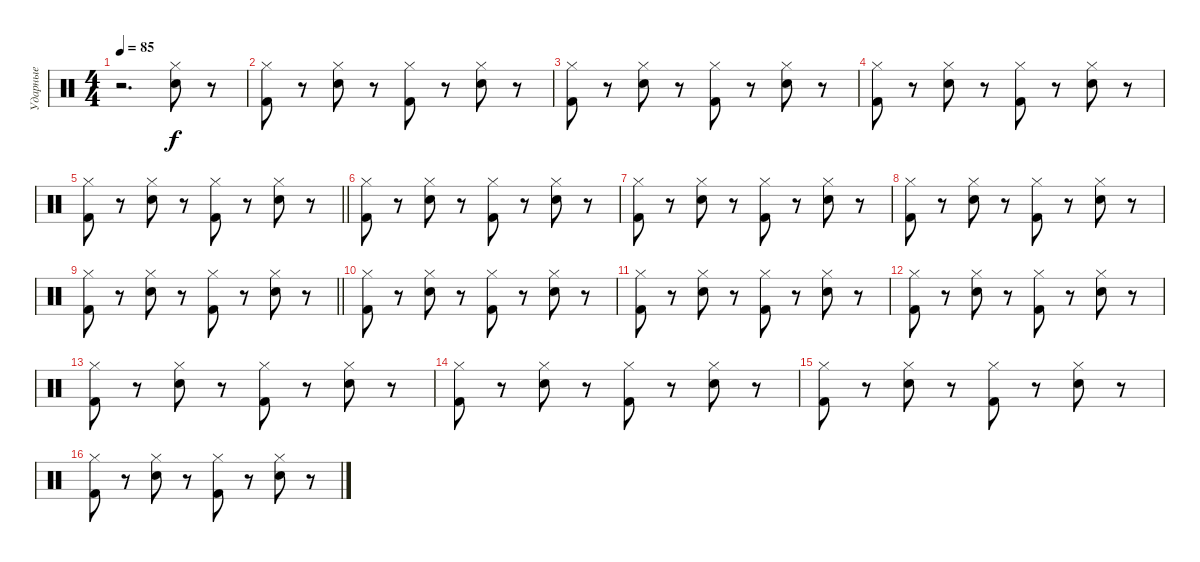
\track ("Ударные" "Ударные") {instrument percussion}
\staff {score}
\articulation defaults
\ts (4 4)
\tempo 85
\clef neutral
\ks c
r.2{d dy f} ("Electric Snare (hit)" "Hi-Hat (closed)").8 r.8 |
("Kick (hit) 2" "Hi-Hat (closed)").8 r.8 ("Electric Snare (hit)" "Hi-Hat (closed)").8 r.8 ("Kick (hit) 2" "Hi-Hat (closed)").8 r.8 ("Electric Snare (hit)" "Hi-Hat (closed)").8 r.8 |
("Kick (hit) 2" "Hi-Hat (closed)").8 r.8 ("Electric Snare (hit)" "Hi-Hat (closed)").8 r.8 ("Kick (hit) 2" "Hi-Hat (closed)").8 r.8 ("Electric Snare (hit)" "Hi-Hat (closed)").8 r.8 |
("Kick (hit) 2" "Hi-Hat (closed)").8 r.8 ("Electric Snare (hit)" "Hi-Hat (closed)").8 r.8 ("Kick (hit) 2" "Hi-Hat (closed)").8 r.8 ("Electric Snare (hit)" "Hi-Hat (closed)").8 r.8 |
\barLineRight lightlight
("Kick (hit) 2" "Hi-Hat (closed)").8 r.8 ("Electric Snare (hit)" "Hi-Hat (closed)").8 r.8 ("Kick (hit) 2" "Hi-Hat (closed)").8 r.8 ("Electric Snare (hit)" "Hi-Hat (closed)").8 r.8 |
("Kick (hit) 2" "Hi-Hat (closed)").8 r.8 ("Electric Snare (hit)" "Hi-Hat (closed)").8 r.8 ("Kick (hit) 2" "Hi-Hat (closed)").8 r.8 ("Electric Snare (hit)" "Hi-Hat (closed)").8 r.8 |
("Kick (hit) 2" "Hi-Hat (closed)").8 r.8 ("Electric Snare (hit)" "Hi-Hat (closed)").8 r.8 ("Kick (hit) 2" "Hi-Hat (closed)").8 r.8 ("Electric Snare (hit)" "Hi-Hat (closed)").8 r.8 |
("Kick (hit) 2" "Hi-Hat (closed)").8 r.8 ("Electric Snare (hit)" "Hi-Hat (closed)").8 r.8 ("Kick (hit) 2" "Hi-Hat (closed)").8 r.8 ("Electric Snare (hit)" "Hi-Hat (closed)").8 r.8 |
\barLineRight lightlight
("Kick (hit) 2" "Hi-Hat (closed)").8 r.8 ("Electric Snare (hit)" "Hi-Hat (closed)").8 r.8 ("Kick (hit) 2" "Hi-Hat (closed)").8 r.8 ("Electric Snare (hit)" "Hi-Hat (closed)").8 r.8 |
("Kick (hit) 2" "Hi-Hat (closed)").8 r.8 ("Electric Snare (hit)" "Hi-Hat (closed)").8 r.8 ("Kick (hit) 2" "Hi-Hat (closed)").8 r.8 ("Electric Snare (hit)" "Hi-Hat (closed)").8 r.8 |
("Kick (hit) 2" "Hi-Hat (closed)").8 r.8 ("Electric Snare (hit)" "Hi-Hat (closed)").8 r.8 ("Kick (hit) 2" "Hi-Hat (closed)").8 r.8 ("Electric Snare (hit)" "Hi-Hat (closed)").8 r.8 |
("Kick (hit) 2" "Hi-Hat (closed)").8 r.8 ("Electric Snare (hit)" "Hi-Hat (closed)").8 r.8 ("Kick (hit) 2" "Hi-Hat (closed)").8 r.8 ("Electric Snare (hit)" "Hi-Hat (closed)").8 r.8 |
("Kick (hit) 2" "Hi-Hat (closed)").8 r.8 ("Electric Snare (hit)" "Hi-Hat (closed)").8 r.8 ("Kick (hit) 2" "Hi-Hat (closed)").8 r.8 ("Electric Snare (hit)" "Hi-Hat (closed)").8 r.8 |
("Kick (hit) 2" "Hi-Hat (closed)").8 r.8 ("Electric Snare (hit)" "Hi-Hat (closed)").8 r.8 ("Kick (hit) 2" "Hi-Hat (closed)").8 r.8 ("Electric Snare (hit)" "Hi-Hat (closed)").8 r.8 |
("Kick (hit) 2" "Hi-Hat (closed)").8 r.8 ("Electric Snare (hit)" "Hi-Hat (closed)").8 r.8 ("Kick (hit) 2" "Hi-Hat (closed)").8 r.8 ("Electric Snare (hit)" "Hi-Hat (closed)").8 r.8 |
("Kick (hit) 2" "Hi-Hat (closed)").8 r.8 ("Electric Snare (hit)" "Hi-Hat (closed)").8 r.8 ("Kick (hit) 2" "Hi-Hat (closed)").8 r.8 ("Electric Snare (hit)" "Hi-Hat (closed)").8 r.8
